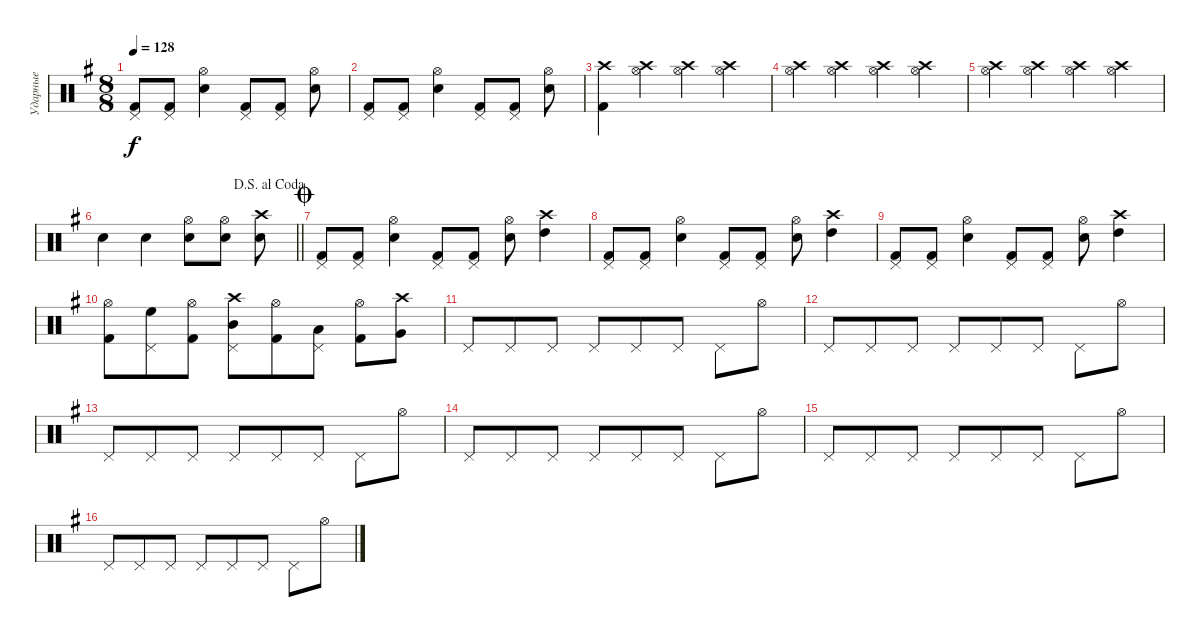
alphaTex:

\track ("Ударные" "Ударные") {instrument percussion}
\staff {score}
\articulation defaults
\ts (8 8)
\tempo 128
\clef neutral
\ks g
("Kick (hit) 2" "Pedal Hi-Hat (hit)").8{dy f} ("Kick (hit) 2" "Pedal Hi-Hat (hit)").8 ("Electric Snare (hit)" "Hi-Hat (open)").4 ("Kick (hit) 2" "Pedal Hi-Hat (hit)").8 ("Kick (hit) 2" "Pedal Hi-Hat (hit)").8 ("Electric Snare (hit)" "Hi-Hat (open)").8 |
("Kick (hit) 2" "Pedal Hi-Hat (hit)").8 ("Kick (hit) 2" "Pedal Hi-Hat (hit)").8 ("Electric Snare (hit)" "Hi-Hat (open)").4 ("Kick (hit) 2" "Pedal Hi-Hat (hit)").8 ("Kick (hit) 2" "Pedal Hi-Hat (hit)").8 ("Electric Snare (hit)" "Hi-Hat (open)").8 |
("Kick (hit) 2" "Crash high (hit)").4 ("Hi-Hat (open)" "Crash high (hit)").4 ("Hi-Hat (open)" "Crash high (hit)").4 ("Hi-Hat (open)" "Crash high (hit)").4 |
("Hi-Hat (open)" "Crash high (hit)").4 ("Hi-Hat (open)" "Crash high (hit)").4 ("Hi-Hat (open)" "Crash high (hit)").4 ("Hi-Hat (open)" "Crash high (hit)").4 |
("Hi-Hat (open)" "Crash high (hit)").4 ("Hi-Hat (open)" "Crash high (hit)").4 ("Hi-Hat (open)" "Crash high (hit)").4 ("Hi-Hat (open)" "Crash high (hit)").4 |
\jump dalsegnoalcoda
\barLineRight lightlight "Snare (hit)".4 "Snare (hit)".4
("Electric Snare (hit)" "Hi-Hat (open)").8 ("Electric Snare (hit)" "Hi-Hat (open)").8 ("Electric Snare (hit)" "Crash high (hit)").8 |
\jump coda
("Kick (hit) 2" "Pedal Hi-Hat (hit)").8 ("Kick (hit) 2" "Pedal Hi-Hat (hit)").8 ("Electric Snare (hit)" "Hi-Hat (open)").4 ("Kick (hit) 2" "Pedal Hi-Hat (hit)").8 ("Kick (hit) 2" "Pedal Hi-Hat (hit)").8 ("Electric Snare (hit)" "Hi-Hat (open)").8 ("Crash high (hit)" "High Tom (hit)").4 |
("Kick (hit) 2" "Pedal Hi-Hat (hit)").8 ("Kick (hit) 2" "Pedal Hi-Hat (hit)").8 ("Electric Snare (hit)" "Hi-Hat (open)").4 ("Kick (hit) 2" "Pedal Hi-Hat (hit)").8 ("Kick (hit) 2" "Pedal Hi-Hat (hit)").8 ("Electric Snare (hit)" "Hi-Hat (open)").8 ("Crash high (hit)" "High Tom (hit)").4 |
("Kick (hit) 2" "Pedal Hi-Hat (hit)").8 ("Kick (hit) 2" "Pedal Hi-Hat (hit)").8 ("Electric Snare (hit)" "Hi-Hat (open)").4 ("Kick (hit) 2" "Pedal Hi-Hat (hit)").8 ("Kick (hit) 2" "Pedal Hi-Hat (hit)").8 ("Electric Snare (hit)" "Hi-Hat (open)").8 ("Crash high (hit)" "High Tom (hit)").4 |
("Kick (hit) 2" "Hi-Hat (open)").8 ("High Floor Tom (hit)" "Pedal Hi-Hat (hit)").8 ("Kick (hit) 2" "Hi-Hat (open)").8 ("Mid Tom (hit)" "Pedal Hi-Hat (hit)" "Crash high (hit)").8 ("Kick (hit) 2" "Hi-Hat (open)").8 ("Low Tom (hit)" "Pedal Hi-Hat (hit)").8 ("Kick (hit) 2" "Hi-Hat (open)").8 ("Very Low Tom (hit)" "Crash high (hit)").8 |
"Pedal Hi-Hat (hit)".8 "Pedal Hi-Hat (hit)".8 "Pedal Hi-Hat (hit)".8 "Pedal Hi-Hat (hit)".8 "Pedal Hi-Hat (hit)".8 "Pedal Hi-Hat (hit)".8 "Pedal Hi-Hat (hit)".8 "Hi-Hat (open)".8 |
"Pedal Hi-Hat (hit)".8 "Pedal Hi-Hat (hit)".8 "Pedal Hi-Hat (hit)".8 "Pedal Hi-Hat (hit)".8 "Pedal Hi-Hat (hit)".8 "Pedal Hi-Hat (hit)".8 "Pedal Hi-Hat (hit)".8 "Hi-Hat (open)".8 |
"Pedal Hi-Hat (hit)".8 "Pedal Hi-Hat (hit)".8 "Pedal Hi-Hat (hit)".8 "Pedal Hi-Hat (hit)".8 "Pedal Hi-Hat (hit)".8 "Pedal Hi-Hat (hit)".8 "Pedal Hi-Hat (hit)".8 "Hi-Hat (open)".8 |
"Pedal Hi-Hat (hit)".8 "Pedal Hi-Hat (hit)".8 "Pedal Hi-Hat (hit)".8 "Pedal Hi-Hat (hit)".8 "Pedal Hi-Hat (hit)".8 "Pedal Hi-Hat (hit)".8 "Pedal Hi-Hat (hit)".8 "Hi-Hat (open)".8 |
"Pedal Hi-Hat (hit)".8 "Pedal Hi-Hat (hit)".8 "Pedal Hi-Hat (hit)".8 "Pedal Hi-Hat (hit)".8 "Pedal Hi-Hat (hit)".8 "Pedal Hi-Hat (hit)".8 "Pedal Hi-Hat (hit)".8 "Hi-Hat (open)".8 |
"Pedal Hi-Hat (hit)".8 "Pedal Hi-Hat (hit)".8 "Pedal Hi-Hat (hit)".8 "Pedal Hi-Hat (hit)".8 "Pedal Hi-Hat (hit)".8 "Pedal Hi-Hat (hit)".8 "Pedal Hi-Hat (hit)".8 "Hi-Hat (open)".8
